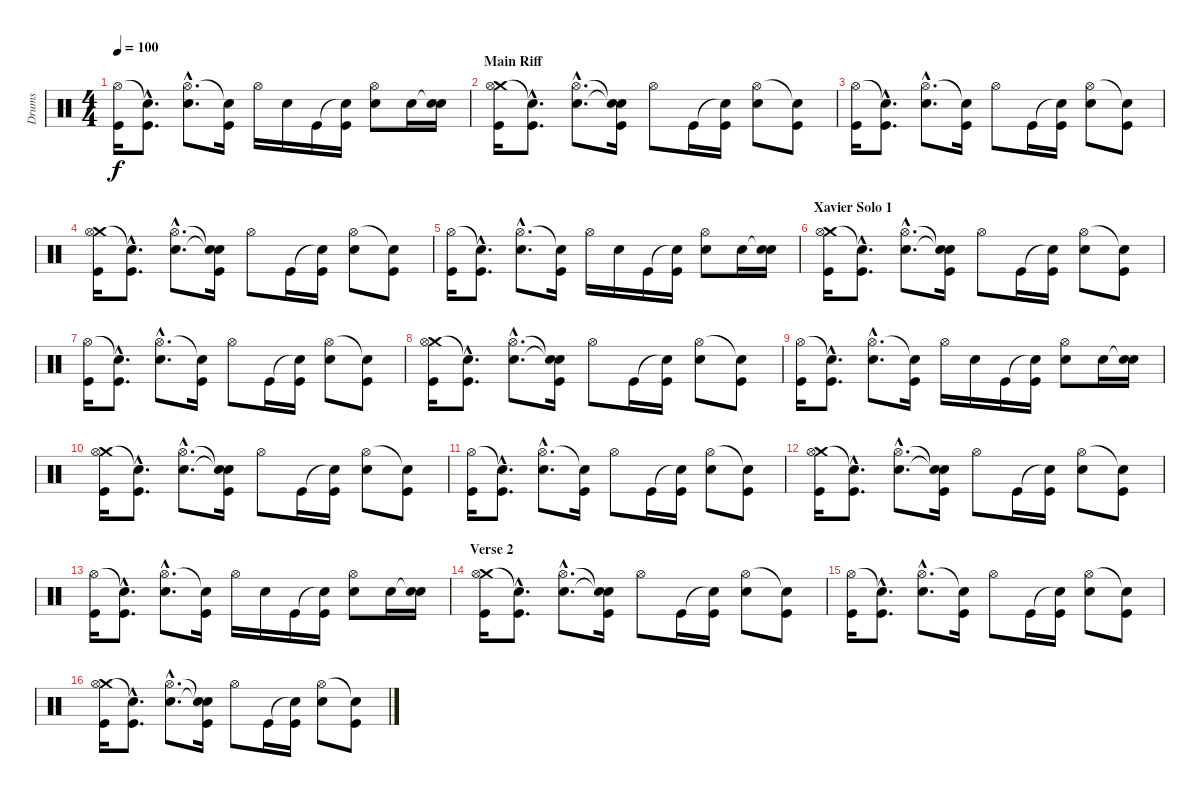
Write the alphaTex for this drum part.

\track ("Drums" "Drums") {instrument percussion}
\staff {score}
\articulation defaults
\ts (4 4)
\tempo 100
\clef neutral
\ks c
("Hi-Hat (open)" "Kick (hit)").16{dy f} ("Snare (hit)"{hac t} "Kick (hit)"{hac}).8{d} ("Hi-Hat (open)"{hac} "Electric Snare (hit)"{hac}).8{d} ("Snare (hit)"{t} "Kick (hit)").16 "Hi-Hat (open)".16 "Electric Snare (hit)".16 "Kick (hit)".16 ("Snare (hit)"{t} "Kick (hit)").16 ("Hi-Hat (open)" "Electric Snare (hit)").8 "Electric Snare (hit)".16 ("Snare (hit)"{t} "Electric Snare (hit)").16 |
\section ("" "Main Riff")
("Crash medium (hit)" "Hi-Hat (open)" "Kick (hit)").16 ("Snare (hit)"{hac t} "Kick (hit)"{hac}).8{d} ("Hi-Hat (open)"{hac} "Electric Snare (hit)"{hac}).8{d} ("Snare (hit)"{t} "Snare (hit)"{t} "Kick (hit)").16 "Hi-Hat (open)".8 "Kick (hit)".16 ("Snare (hit)"{t} "Kick (hit)").16 ("Hi-Hat (open)" "Electric Snare (hit)").8 ("Snare (hit)"{t} "Kick (hit)").8 |
("Hi-Hat (open)" "Kick (hit)").16 ("Snare (hit)"{hac t} "Kick (hit)"{hac}).8{d} ("Hi-Hat (open)"{hac} "Electric Snare (hit)"{hac}).8{d} ("Snare (hit)"{t} "Kick (hit)").16 "Hi-Hat (open)".8 "Kick (hit)".16 ("Snare (hit)"{t} "Kick (hit)").16 ("Hi-Hat (open)" "Electric Snare (hit)").8 ("Snare (hit)"{t} "Kick (hit)").8 |
("Crash medium (hit)" "Hi-Hat (open)" "Kick (hit)").16 ("Snare (hit)"{hac t} "Kick (hit)"{hac}).8{d} ("Hi-Hat (open)"{hac} "Electric Snare (hit)"{hac}).8{d} ("Snare (hit)"{t} "Snare (hit)"{t} "Kick (hit)").16 "Hi-Hat (open)".8 "Kick (hit)".16 ("Snare (hit)"{t} "Kick (hit)").16 ("Hi-Hat (open)" "Electric Snare (hit)").8 ("Snare (hit)"{t} "Kick (hit)").8 |
("Hi-Hat (open)" "Kick (hit)").16 ("Snare (hit)"{hac t} "Kick (hit)"{hac}).8{d} ("Hi-Hat (open)"{hac} "Electric Snare (hit)"{hac}).8{d} ("Snare (hit)"{t} "Kick (hit)").16 "Hi-Hat (open)".16 "Electric Snare (hit)".16 "Kick (hit)".16 ("Snare (hit)"{t} "Kick (hit)").16 ("Hi-Hat (open)" "Electric Snare (hit)").8 "Electric Snare (hit)".16 ("Snare (hit)"{t} "Electric Snare (hit)").16 |
\section ("" "Xavier Solo 1")
("Crash medium (hit)" "Hi-Hat (open)" "Kick (hit)").16 ("Snare (hit)"{hac t} "Kick (hit)"{hac}).8{d} ("Hi-Hat (open)"{hac} "Electric Snare (hit)"{hac}).8{d} ("Snare (hit)"{t} "Snare (hit)"{t} "Kick (hit)").16 "Hi-Hat (open)".8 "Kick (hit)".16 ("Snare (hit)"{t} "Kick (hit)").16 ("Hi-Hat (open)" "Electric Snare (hit)").8 ("Snare (hit)"{t} "Kick (hit)").8 |
("Hi-Hat (open)" "Kick (hit)").16 ("Snare (hit)"{hac t} "Kick (hit)"{hac}).8{d} ("Hi-Hat (open)"{hac} "Electric Snare (hit)"{hac}).8{d} ("Snare (hit)"{t} "Kick (hit)").16 "Hi-Hat (open)".8 "Kick (hit)".16 ("Snare (hit)"{t} "Kick (hit)").16 ("Hi-Hat (open)" "Electric Snare (hit)").8 ("Snare (hit)"{t} "Kick (hit)").8 |
("Crash medium (hit)" "Hi-Hat (open)" "Kick (hit)").16 ("Snare (hit)"{hac t} "Kick (hit)"{hac}).8{d} ("Hi-Hat (open)"{hac} "Electric Snare (hit)"{hac}).8{d} ("Snare (hit)"{t} "Snare (hit)"{t} "Kick (hit)").16 "Hi-Hat (open)".8 "Kick (hit)".16 ("Snare (hit)"{t} "Kick (hit)").16 ("Hi-Hat (open)" "Electric Snare (hit)").8 ("Snare (hit)"{t} "Kick (hit)").8 |
("Hi-Hat (open)" "Kick (hit)").16 ("Snare (hit)"{hac t} "Kick (hit)"{hac}).8{d} ("Hi-Hat (open)"{hac} "Electric Snare (hit)"{hac}).8{d} ("Snare (hit)"{t} "Kick (hit)").16 "Hi-Hat (open)".16 "Electric Snare (hit)".16 "Kick (hit)".16 ("Snare (hit)"{t} "Kick (hit)").16 ("Hi-Hat (open)" "Electric Snare (hit)").8 "Electric Snare (hit)".16 ("Snare (hit)"{t} "Electric Snare (hit)").16 |
("Crash medium (hit)" "Hi-Hat (open)" "Kick (hit)").16 ("Snare (hit)"{hac t} "Kick (hit)"{hac}).8{d} ("Hi-Hat (open)"{hac} "Electric Snare (hit)"{hac}).8{d} ("Snare (hit)"{t} "Snare (hit)"{t} "Kick (hit)").16 "Hi-Hat (open)".8 "Kick (hit)".16 ("Snare (hit)"{t} "Kick (hit)").16 ("Hi-Hat (open)" "Electric Snare (hit)").8 ("Snare (hit)"{t} "Kick (hit)").8 |
("Hi-Hat (open)" "Kick (hit)").16 ("Snare (hit)"{hac t} "Kick (hit)"{hac}).8{d} ("Hi-Hat (open)"{hac} "Electric Snare (hit)"{hac}).8{d} ("Snare (hit)"{t} "Kick (hit)").16 "Hi-Hat (open)".8 "Kick (hit)".16 ("Snare (hit)"{t} "Kick (hit)").16 ("Hi-Hat (open)" "Electric Snare (hit)").8 ("Snare (hit)"{t} "Kick (hit)").8 |
("Crash medium (hit)" "Hi-Hat (open)" "Kick (hit)").16 ("Snare (hit)"{hac t} "Kick (hit)"{hac}).8{d} ("Hi-Hat (open)"{hac} "Electric Snare (hit)"{hac}).8{d} ("Snare (hit)"{t} "Snare (hit)"{t} "Kick (hit)").16 "Hi-Hat (open)".8 "Kick (hit)".16 ("Snare (hit)"{t} "Kick (hit)").16 ("Hi-Hat (open)" "Electric Snare (hit)").8 ("Snare (hit)"{t} "Kick (hit)").8 |
("Hi-Hat (open)" "Kick (hit)").16 ("Snare (hit)"{hac t} "Kick (hit)"{hac}).8{d} ("Hi-Hat (open)"{hac} "Electric Snare (hit)"{hac}).8{d} ("Snare (hit)"{t} "Kick (hit)").16 "Hi-Hat (open)".16 "Electric Snare (hit)".16 "Kick (hit)".16 ("Snare (hit)"{t} "Kick (hit)").16 ("Hi-Hat (open)" "Electric Snare (hit)").8 "Electric Snare (hit)".16 ("Snare (hit)"{t} "Electric Snare (hit)").16 |
\section ("" "Verse 2")
("Crash medium (hit)" "Hi-Hat (open)" "Kick (hit)").16 ("Snare (hit)"{hac t} "Kick (hit)"{hac}).8{d} ("Hi-Hat (open)"{hac} "Electric Snare (hit)"{hac}).8{d} ("Snare (hit)"{t} "Snare (hit)"{t} "Kick (hit)").16 "Hi-Hat (open)".8 "Kick (hit)".16 ("Snare (hit)"{t} "Kick (hit)").16 ("Hi-Hat (open)" "Electric Snare (hit)").8 ("Snare (hit)"{t} "Kick (hit)").8 |
("Hi-Hat (open)" "Kick (hit)").16 ("Snare (hit)"{hac t} "Kick (hit)"{hac}).8{d} ("Hi-Hat (open)"{hac} "Electric Snare (hit)"{hac}).8{d} ("Snare (hit)"{t} "Kick (hit)").16 "Hi-Hat (open)".8 "Kick (hit)".16 ("Snare (hit)"{t} "Kick (hit)").16 ("Hi-Hat (open)" "Electric Snare (hit)").8 ("Snare (hit)"{t} "Kick (hit)").8 |
("Crash medium (hit)" "Hi-Hat (open)" "Kick (hit)").16 ("Snare (hit)"{hac t} "Kick (hit)"{hac}).8{d} ("Hi-Hat (open)"{hac} "Electric Snare (hit)"{hac}).8{d} ("Snare (hit)"{t} "Snare (hit)"{t} "Kick (hit)").16 "Hi-Hat (open)".8 "Kick (hit)".16 ("Snare (hit)"{t} "Kick (hit)").16 ("Hi-Hat (open)" "Electric Snare (hit)").8 ("Snare (hit)"{t} "Kick (hit)").8
